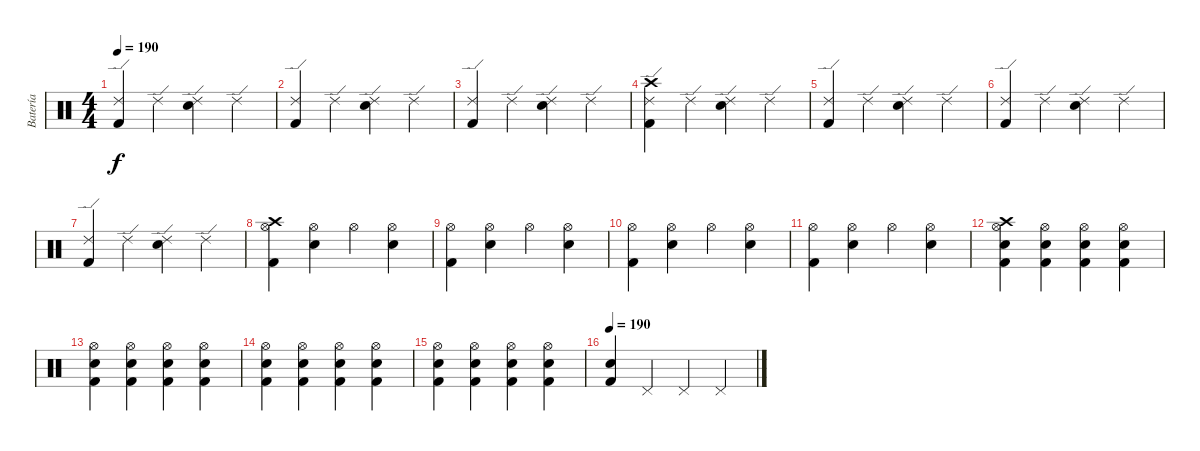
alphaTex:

\track ("Batería" "Batería") {instrument percussion}
\staff {score}
\articulation defaults
\ts (4 4)
\tempo 190
\clef neutral
\ks c
("Ride (edge) 2" "Kick (hit) 2").4{dy f} "Ride (edge) 2".4 ("Ride (edge) 2" "Electric Snare (hit)").4 "Ride (edge) 2".4 |
("Ride (edge) 2" "Kick (hit) 2").4 "Ride (edge) 2".4 ("Ride (edge) 2" "Electric Snare (hit)").4 "Ride (edge) 2".4 |
("Ride (edge) 2" "Kick (hit) 2").4 "Ride (edge) 2".4 ("Ride (edge) 2" "Electric Snare (hit)").4 "Ride (edge) 2".4 |
("Ride (edge) 2" "Kick (hit) 2" "Crash high (hit)").4 "Ride (edge) 2".4 ("Ride (edge) 2" "Electric Snare (hit)").4 "Ride (edge) 2".4 |
("Ride (edge) 2" "Kick (hit) 2").4 "Ride (edge) 2".4 ("Ride (edge) 2" "Electric Snare (hit)").4 "Ride (edge) 2".4 |
("Ride (edge) 2" "Kick (hit) 2").4 "Ride (edge) 2".4 ("Ride (edge) 2" "Electric Snare (hit)").4 "Ride (edge) 2".4 |
("Ride (edge) 2" "Kick (hit) 2").4 "Ride (edge) 2".4 ("Ride (edge) 2" "Electric Snare (hit)").4 "Ride (edge) 2".4 |
("Hi-Hat (open)" "Kick (hit) 2" "Crash high (hit)").4 ("Hi-Hat (open)" "Electric Snare (hit)").4 "Hi-Hat (open)".4 ("Hi-Hat (open)" "Electric Snare (hit)").4 |
("Hi-Hat (open)" "Kick (hit) 2").4 ("Hi-Hat (open)" "Electric Snare (hit)").4 "Hi-Hat (open)".4 ("Hi-Hat (open)" "Electric Snare (hit)").4 |
("Hi-Hat (open)" "Kick (hit) 2").4 ("Hi-Hat (open)" "Electric Snare (hit)").4 "Hi-Hat (open)".4 ("Hi-Hat (open)" "Electric Snare (hit)").4 |
("Hi-Hat (open)" "Kick (hit) 2").4 ("Hi-Hat (open)" "Electric Snare (hit)").4 "Hi-Hat (open)".4 ("Hi-Hat (open)" "Electric Snare (hit)").4 |
("Electric Snare (hit)" "Kick (hit) 2" "Hi-Hat (open)" "Crash high (hit)").4 ("Electric Snare (hit)" "Kick (hit) 2" "Hi-Hat (open)").4 ("Electric Snare (hit)" "Kick (hit) 2" "Hi-Hat (open)").4 ("Electric Snare (hit)" "Kick (hit) 2" "Hi-Hat (open)").4 |
("Electric Snare (hit)" "Kick (hit) 2" "Hi-Hat (open)").4 ("Electric Snare (hit)" "Kick (hit) 2" "Hi-Hat (open)").4 ("Electric Snare (hit)" "Kick (hit) 2" "Hi-Hat (open)").4 ("Electric Snare (hit)" "Kick (hit) 2" "Hi-Hat (open)").4 |
("Electric Snare (hit)" "Kick (hit) 2" "Hi-Hat (open)").4 ("Electric Snare (hit)" "Kick (hit) 2" "Hi-Hat (open)").4 ("Electric Snare (hit)" "Kick (hit) 2" "Hi-Hat (open)").4 ("Electric Snare (hit)" "Kick (hit) 2" "Hi-Hat (open)").4 |
("Electric Snare (hit)" "Kick (hit) 2" "Hi-Hat (open)").4 ("Electric Snare (hit)" "Kick (hit) 2" "Hi-Hat (open)").4 ("Electric Snare (hit)" "Kick (hit) 2" "Hi-Hat (open)").4 ("Electric Snare (hit)" "Kick (hit) 2" "Hi-Hat (open)").4 |
\tempo 190
("Electric Snare (hit)" "Kick (hit) 2").4 "Pedal Hi-Hat (hit)".4 "Pedal Hi-Hat (hit)".4 "Pedal Hi-Hat (hit)".4
